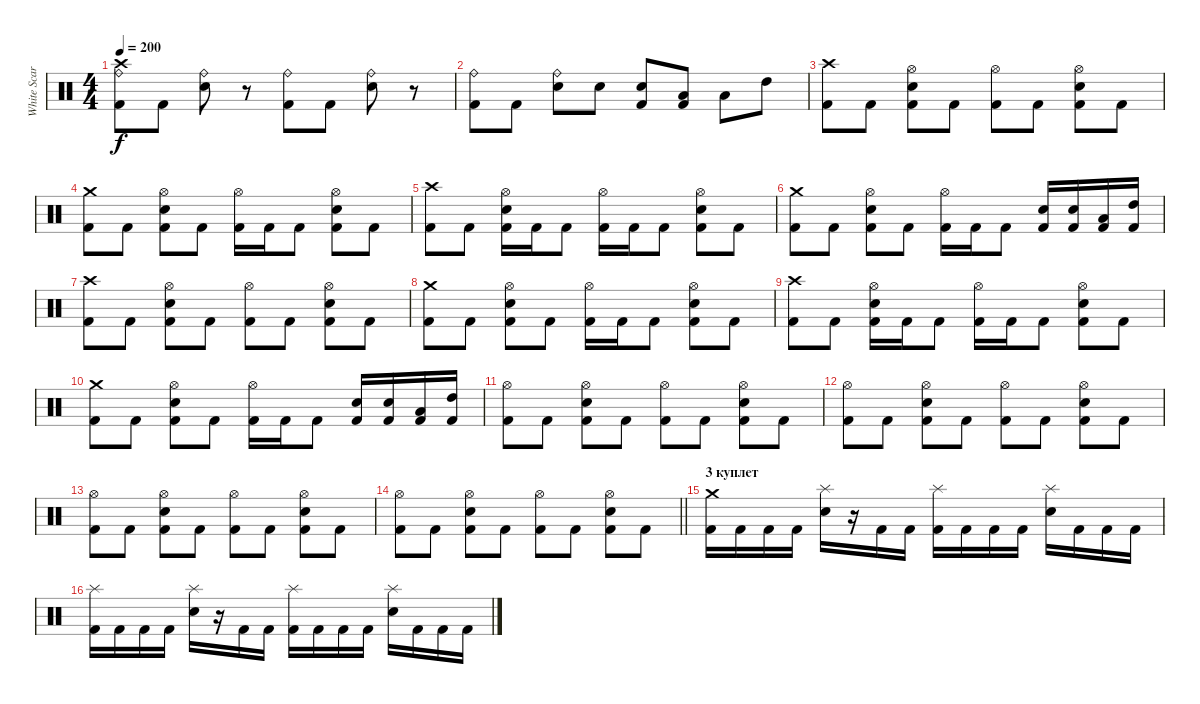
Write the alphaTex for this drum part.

\track ("White Scar" "White Scar") {instrument percussion}
\staff {score}
\articulation defaults
\ts (4 4)
\tempo 200
\clef neutral
\ks c
("Ride (bell)" "Crash high (hit)" "Kick (hit) 2").8{dy f} "Kick (hit) 2".8 ("Ride (bell)" "Snare (hit) 2").8 r.8 ("Ride (bell)" "Kick (hit) 2").8 "Kick (hit) 2".8 ("Ride (bell)" "Snare (hit) 2").8 r.8 |
("Ride (bell)" "Kick (hit) 2").8 "Kick (hit) 2".8 ("Ride (bell)" "Snare (hit) 2").8 "Snare (hit) 2".8 ("Snare (hit) 2" "Kick (hit) 2").8 ("Low Tom (hit)" "Kick (hit) 2").8 "Low Tom (hit)".8 "High Tom (hit)".8 |
("Crash high (hit)" "Kick (hit) 2").8 "Kick (hit) 2".8 ("Hi-Hat (open)" "Snare (hit) 2" "Kick (hit) 2").8 "Kick (hit) 2".8 ("Hi-Hat (open)" "Kick (hit) 2").8 "Kick (hit) 2".8 ("Hi-Hat (open)" "Snare (hit) 2" "Kick (hit) 2").8 "Kick (hit) 2".8 |
("Crash medium (hit)" "Kick (hit) 2").8 "Kick (hit) 2".8 ("Hi-Hat (open)" "Snare (hit) 2" "Kick (hit) 2").8 "Kick (hit) 2".8 ("Hi-Hat (open)" "Kick (hit) 2").16 "Kick (hit) 2".16 "Kick (hit) 2".8 ("Hi-Hat (open)" "Snare (hit) 2" "Kick (hit) 2").8 "Kick (hit) 2".8 |
("Crash high (hit)" "Kick (hit) 2").8 "Kick (hit) 2".8 ("Hi-Hat (open)" "Snare (hit) 2" "Kick (hit) 2").16 "Kick (hit) 2".16 "Kick (hit) 2".8 ("Hi-Hat (open)" "Kick (hit) 2").16 "Kick (hit) 2".16 "Kick (hit) 2".8 ("Hi-Hat (open)" "Snare (hit) 2" "Kick (hit) 2").8 "Kick (hit) 2".8 |
("Crash medium (hit)" "Kick (hit) 2").8 "Kick (hit) 2".8 ("Hi-Hat (open)" "Snare (hit) 2" "Kick (hit) 2").8 "Kick (hit) 2".8 ("Hi-Hat (open)" "Kick (hit) 2").16 "Kick (hit) 2".16 "Kick (hit) 2".8 ("Snare (hit) 2" "Kick (hit) 2").16 ("Snare (hit) 2" "Kick (hit) 2").16 ("Low Tom (hit)" "Kick (hit) 2").16 ("High Tom (hit)" "Kick (hit) 2").16 |
("Crash high (hit)" "Kick (hit) 2").8 "Kick (hit) 2".8 ("Hi-Hat (open)" "Snare (hit) 2" "Kick (hit) 2").8 "Kick (hit) 2".8 ("Hi-Hat (open)" "Kick (hit) 2").8 "Kick (hit) 2".8 ("Hi-Hat (open)" "Snare (hit) 2" "Kick (hit) 2").8 "Kick (hit) 2".8 |
("Crash medium (hit)" "Kick (hit) 2").8 "Kick (hit) 2".8 ("Hi-Hat (open)" "Snare (hit) 2" "Kick (hit) 2").8 "Kick (hit) 2".8 ("Hi-Hat (open)" "Kick (hit) 2").16 "Kick (hit) 2".16 "Kick (hit) 2".8 ("Hi-Hat (open)" "Snare (hit) 2" "Kick (hit) 2").8 "Kick (hit) 2".8 |
("Crash high (hit)" "Kick (hit) 2").8 "Kick (hit) 2".8 ("Hi-Hat (open)" "Snare (hit) 2" "Kick (hit) 2").16 "Kick (hit) 2".16 "Kick (hit) 2".8 ("Hi-Hat (open)" "Kick (hit) 2").16 "Kick (hit) 2".16 "Kick (hit) 2".8 ("Hi-Hat (open)" "Snare (hit) 2" "Kick (hit) 2").8 "Kick (hit) 2".8 |
("Crash medium (hit)" "Kick (hit) 2").8 "Kick (hit) 2".8 ("Hi-Hat (open)" "Snare (hit) 2" "Kick (hit) 2").8 "Kick (hit) 2".8 ("Hi-Hat (open)" "Kick (hit) 2").16 "Kick (hit) 2".16 "Kick (hit) 2".8 ("Snare (hit) 2" "Kick (hit) 2").16 ("Snare (hit) 2" "Kick (hit) 2").16 ("Low Tom (hit)" "Kick (hit) 2").16 ("High Tom (hit)" "Kick (hit) 2").16 |
("Hi-Hat (open)" "Kick (hit) 2").8 "Kick (hit) 2".8 ("Snare (hit) 2" "Hi-Hat (open)" "Kick (hit) 2").8 "Kick (hit) 2".8 ("Hi-Hat (open)" "Kick (hit) 2").8 "Kick (hit) 2".8 ("Snare (hit) 2" "Hi-Hat (open)" "Kick (hit) 2").8 "Kick (hit) 2".8 |
("Hi-Hat (open)" "Kick (hit) 2").8 "Kick (hit) 2".8 ("Snare (hit) 2" "Hi-Hat (open)" "Kick (hit) 2").8 "Kick (hit) 2".8 ("Hi-Hat (open)" "Kick (hit) 2").8 "Kick (hit) 2".8 ("Snare (hit) 2" "Hi-Hat (open)" "Kick (hit) 2").8 "Kick (hit) 2".8 |
("Hi-Hat (open)" "Kick (hit) 2").8 "Kick (hit) 2".8 ("Snare (hit) 2" "Hi-Hat (open)" "Kick (hit) 2").8 "Kick (hit) 2".8 ("Hi-Hat (open)" "Kick (hit) 2").8 "Kick (hit) 2".8 ("Snare (hit) 2" "Hi-Hat (open)" "Kick (hit) 2").8 "Kick (hit) 2".8 |
\barLineRight lightlight
("Hi-Hat (open)" "Kick (hit) 2").8 "Kick (hit) 2".8 ("Snare (hit) 2" "Hi-Hat (open)" "Kick (hit) 2").8 "Kick (hit) 2".8 ("Hi-Hat (open)" "Kick (hit) 2").8 "Kick (hit) 2".8 ("Snare (hit) 2" "Hi-Hat (open)" "Kick (hit) 2").8 "Kick (hit) 2".8 |
\section ("" "3 куплет")
("Crash medium (hit)" "Kick (hit) 2").16 "Kick (hit) 2".16 "Kick (hit) 2".16 "Kick (hit) 2".16 ("Splash (hit)" "Snare (hit) 2").16 r.16 "Kick (hit) 2".16 "Kick (hit) 2".16 ("Splash (hit)" "Kick (hit) 2").16 "Kick (hit) 2".16 "Kick (hit) 2".16 "Kick (hit) 2".16 ("Splash (hit)" "Snare (hit) 2").16 "Kick (hit) 2".16 "Kick (hit) 2".16 "Kick (hit) 2".16 |
("Splash (hit)" "Kick (hit) 2").16 "Kick (hit) 2".16 "Kick (hit) 2".16 "Kick (hit) 2".16 ("Splash (hit)" "Snare (hit) 2").16 r.16 "Kick (hit) 2".16 "Kick (hit) 2".16 ("Splash (hit)" "Kick (hit) 2").16 "Kick (hit) 2".16 "Kick (hit) 2".16 "Kick (hit) 2".16 ("Splash (hit)" "Snare (hit) 2").16 "Kick (hit) 2".16 "Kick (hit) 2".16 "Kick (hit) 2".16
